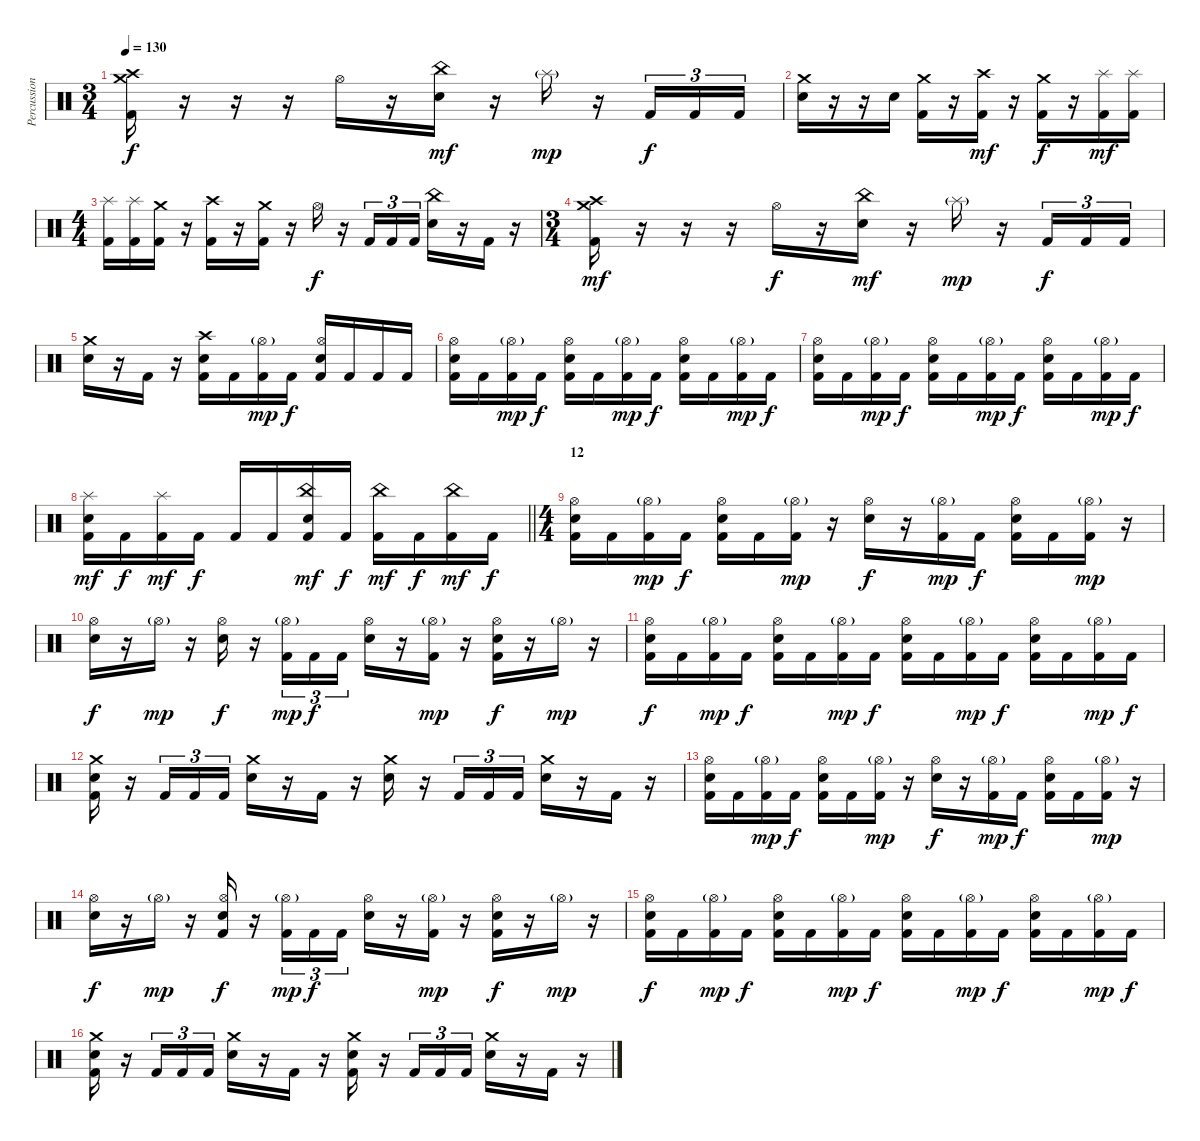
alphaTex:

\track ("Percussion" "Percussion") {instrument percussion}
\staff {score}
\articulation defaults
\ts (3 4)
\section ("" "")
\tempo 130
\clef neutral
\ks c
("Crash medium (hit)" "Crash high (hit)" "Kick (hit) 2").16{dy f} r.16 r.16 r.16 "Hi-Hat (open)".16 r.16 ("China (hit)" "Snare (hit) 2").16{dy mf} r.16 "Splash (hit)"{g}.16{dy mp} r.16 "Kick (hit) 2".16{tu (3 2) dy f} "Kick (hit) 2".16{tu (3 2)} "Kick (hit) 2".16{tu (3 2)} |
("Crash medium (hit)" "Snare (hit) 2").16 r.16 r.16 "Snare (hit) 2".16 ("Crash medium (hit)" "Kick (hit) 2").16 r.16 ("Crash high (hit)" "Kick (hit) 2").16{dy mf} r.16 ("Crash medium (hit)" "Kick (hit) 2").16{dy f} r.16 ("Splash (hit)" "Kick (hit) 2").16{dy mf} ("Splash (hit)" "Kick (hit) 2").16 |
\ts (4 4)
("Splash (hit)" "Kick (hit) 2").16 ("Splash (hit)" "Kick (hit) 2").16 ("Crash medium (hit)" "Kick (hit) 2").16 r.16 ("Crash high (hit)" "Kick (hit) 2").16 r.16 ("Crash medium (hit)" "Kick (hit) 2").16 r.16 "Hi-Hat (open)".16{dy f} r.16 "Kick (hit) 2".16{tu (3 2)} "Kick (hit) 2".16{tu (3 2)} "Kick (hit) 2".16{tu (3 2)} ("China (hit)" "Snare (hit) 2").16 r.16 "Kick (hit) 2".16 r.16 |
\ts (3 4)
("Crash medium (hit)" "Crash high (hit)" "Kick (hit) 2").16{dy mf} r.16 r.16 r.16 "Hi-Hat (open)".16{dy f} r.16 ("China (hit)" "Snare (hit) 2").16{dy mf} r.16 "Splash (hit)"{g}.16{dy mp} r.16 "Kick (hit) 2".16{tu (3 2) dy f} "Kick (hit) 2".16{tu (3 2)} "Kick (hit) 2".16{tu (3 2)} |
("Crash medium (hit)" "Snare (hit) 2").16 r.16 "Kick (hit) 2".16 r.16 ("Crash high (hit)" "Snare (hit) 2" "Kick (hit) 2").16 "Kick (hit) 2".16 ("Hi-Hat (open)"{g} "Kick (hit) 2").16{dy mp} "Kick (hit) 2".16{dy f} ("Hi-Hat (open)" "Snare (hit) 2" "Kick (hit) 2").16 "Kick (hit) 2".16 "Kick (hit) 2".16 "Kick (hit) 2".16 |
("Hi-Hat (open)" "Snare (hit) 2" "Kick (hit) 2").16 "Kick (hit) 2".16 ("Hi-Hat (open)"{g} "Kick (hit) 2").16{dy mp} "Kick (hit) 2".16{dy f} ("Hi-Hat (open)" "Snare (hit) 2" "Kick (hit) 2").16 "Kick (hit) 2".16 ("Hi-Hat (open)"{g} "Kick (hit) 2").16{dy mp} "Kick (hit) 2".16{dy f} ("Hi-Hat (open)" "Snare (hit) 2" "Kick (hit) 2").16 "Kick (hit) 2".16 ("Hi-Hat (open)"{g} "Kick (hit) 2").16{dy mp} "Kick (hit) 2".16{dy f} |
("Hi-Hat (open)" "Snare (hit) 2" "Kick (hit) 2").16 "Kick (hit) 2".16 ("Hi-Hat (open)"{g} "Kick (hit) 2").16{dy mp} "Kick (hit) 2".16{dy f} ("Hi-Hat (open)" "Snare (hit) 2" "Kick (hit) 2").16 "Kick (hit) 2".16 ("Hi-Hat (open)"{g} "Kick (hit) 2").16{dy mp} "Kick (hit) 2".16{dy f} ("Hi-Hat (open)" "Snare (hit) 2" "Kick (hit) 2").16 "Kick (hit) 2".16 ("Hi-Hat (open)"{g} "Kick (hit) 2").16{dy mp} "Kick (hit) 2".16{dy f} |
\barLineRight lightlight
("Splash (hit)" "Snare (hit) 2" "Kick (hit) 2").16{dy mf} "Kick (hit) 2".16{dy f} ("Splash (hit)" "Kick (hit) 2").16{dy mf} "Kick (hit) 2".16{dy f} "Kick (hit) 2".16 "Kick (hit) 2".16 ("China (hit)" "Snare (hit) 2" "Kick (hit) 2").16{dy mf} "Kick (hit) 2".16{dy f} ("China (hit)" "Kick (hit) 2").16{dy mf} "Kick (hit) 2".16{dy f} ("China (hit)" "Kick (hit) 2").16{dy mf} "Kick (hit) 2".16{dy f} |
\ts (4 4)
\section ("" "12")
("Hi-Hat (open)" "Snare (hit) 2" "Kick (hit) 2").16 "Kick (hit) 2".16 ("Hi-Hat (open)"{g} "Kick (hit) 2").16{dy mp} "Kick (hit) 2".16{dy f} ("Hi-Hat (open)" "Snare (hit) 2" "Kick (hit) 2").16 "Kick (hit) 2".16 ("Hi-Hat (open)"{g} "Kick (hit) 2").16{dy mp} r.16 ("Hi-Hat (open)" "Snare (hit) 2").16{dy f} r.16 ("Hi-Hat (open)"{g} "Kick (hit) 2").16{dy mp} "Kick (hit) 2".16{dy f} ("Hi-Hat (open)" "Snare (hit) 2" "Kick (hit) 2").16 "Kick (hit) 2".16 ("Hi-Hat (open)"{g} "Kick (hit) 2").16{dy mp} r.16 |
("Hi-Hat (open)" "Snare (hit) 2").16{dy f} r.16 "Hi-Hat (open)"{g}.16{dy mp} r.16 ("Hi-Hat (open)" "Snare (hit) 2").16{dy f} r.16 ("Hi-Hat (open)"{g} "Kick (hit) 2").16{tu (3 2) dy mp} "Kick (hit) 2".16{tu (3 2) dy f} "Kick (hit) 2".16{tu (3 2)} ("Hi-Hat (open)" "Snare (hit) 2").16 r.16 ("Hi-Hat (open)"{g} "Kick (hit) 2").16{dy mp} r.16 ("Hi-Hat (open)" "Snare (hit) 2" "Kick (hit) 2").16{dy f} r.16 "Hi-Hat (open)"{g}.16{dy mp} r.16 |
("Hi-Hat (open)" "Snare (hit) 2" "Kick (hit) 2").16{dy f} "Kick (hit) 2".16 ("Hi-Hat (open)"{g} "Kick (hit) 2").16{dy mp} "Kick (hit) 2".16{dy f} ("Hi-Hat (open)" "Snare (hit) 2" "Kick (hit) 2").16 "Kick (hit) 2".16 ("Hi-Hat (open)"{g} "Kick (hit) 2").16{dy mp} "Kick (hit) 2".16{dy f} ("Hi-Hat (open)" "Snare (hit) 2" "Kick (hit) 2").16 "Kick (hit) 2".16 ("Hi-Hat (open)"{g} "Kick (hit) 2").16{dy mp} "Kick (hit) 2".16{dy f} ("Hi-Hat (open)" "Snare (hit) 2" "Kick (hit) 2").16 "Kick (hit) 2".16 ("Hi-Hat (open)"{g} "Kick (hit) 2").16{dy mp} "Kick (hit) 2".16{dy f} |
("Crash medium (hit)" "Snare (hit) 2" "Kick (hit) 2").16 r.16 "Kick (hit) 2".16{tu (3 2)} "Kick (hit) 2".16{tu (3 2)} "Kick (hit) 2".16{tu (3 2)} ("Crash medium (hit)" "Snare (hit) 2").16 r.16 "Kick (hit) 2".16 r.16 ("Crash medium (hit)" "Snare (hit) 2").16 r.16 "Kick (hit) 2".16{tu (3 2)} "Kick (hit) 2".16{tu (3 2)} "Kick (hit) 2".16{tu (3 2)} ("Crash medium (hit)" "Snare (hit) 2").16 r.16 "Kick (hit) 2".16 r.16 |
("Hi-Hat (open)" "Snare (hit) 2" "Kick (hit) 2").16 "Kick (hit) 2".16 ("Hi-Hat (open)"{g} "Kick (hit) 2").16{dy mp} "Kick (hit) 2".16{dy f} ("Hi-Hat (open)" "Snare (hit) 2" "Kick (hit) 2").16 "Kick (hit) 2".16 ("Hi-Hat (open)"{g} "Kick (hit) 2").16{dy mp} r.16 ("Hi-Hat (open)" "Snare (hit) 2").16{dy f} r.16 ("Hi-Hat (open)"{g} "Kick (hit) 2").16{dy mp} "Kick (hit) 2".16{dy f} ("Hi-Hat (open)" "Snare (hit) 2" "Kick (hit) 2").16 "Kick (hit) 2".16 ("Hi-Hat (open)"{g} "Kick (hit) 2").16{dy mp} r.16 |
("Hi-Hat (open)" "Snare (hit) 2").16{dy f} r.16 "Hi-Hat (open)"{g}.16{dy mp} r.16 ("Hi-Hat (open)" "Snare (hit) 2" "Kick (hit) 2").16{dy f} r.16 ("Hi-Hat (open)"{g} "Kick (hit) 2").16{tu (3 2) dy mp} "Kick (hit) 2".16{tu (3 2) dy f} "Kick (hit) 2".16{tu (3 2)} ("Hi-Hat (open)" "Snare (hit) 2").16 r.16 ("Hi-Hat (open)"{g} "Kick (hit) 2").16{dy mp} r.16 ("Hi-Hat (open)" "Snare (hit) 2" "Kick (hit) 2").16{dy f} r.16 "Hi-Hat (open)"{g}.16{dy mp} r.16 |
("Hi-Hat (open)" "Snare (hit) 2" "Kick (hit) 2").16{dy f} "Kick (hit) 2".16 ("Hi-Hat (open)"{g} "Kick (hit) 2").16{dy mp} "Kick (hit) 2".16{dy f} ("Hi-Hat (open)" "Snare (hit) 2" "Kick (hit) 2").16 "Kick (hit) 2".16 ("Hi-Hat (open)"{g} "Kick (hit) 2").16{dy mp} "Kick (hit) 2".16{dy f} ("Hi-Hat (open)" "Snare (hit) 2" "Kick (hit) 2").16 "Kick (hit) 2".16 ("Hi-Hat (open)"{g} "Kick (hit) 2").16{dy mp} "Kick (hit) 2".16{dy f} ("Hi-Hat (open)" "Snare (hit) 2" "Kick (hit) 2").16 "Kick (hit) 2".16 ("Hi-Hat (open)"{g} "Kick (hit) 2").16{dy mp} "Kick (hit) 2".16{dy f} |
("Crash medium (hit)" "Snare (hit) 2" "Kick (hit) 2").16 r.16 "Kick (hit) 2".16{tu (3 2)} "Kick (hit) 2".16{tu (3 2)} "Kick (hit) 2".16{tu (3 2)} ("Crash medium (hit)" "Snare (hit) 2").16 r.16 "Kick (hit) 2".16 r.16 ("Crash medium (hit)" "Snare (hit) 2" "Kick (hit) 2").16 r.16 "Kick (hit) 2".16{tu (3 2)} "Kick (hit) 2".16{tu (3 2)} "Kick (hit) 2".16{tu (3 2)} ("Crash medium (hit)" "Snare (hit) 2").16 r.16 "Kick (hit) 2".16 r.16
